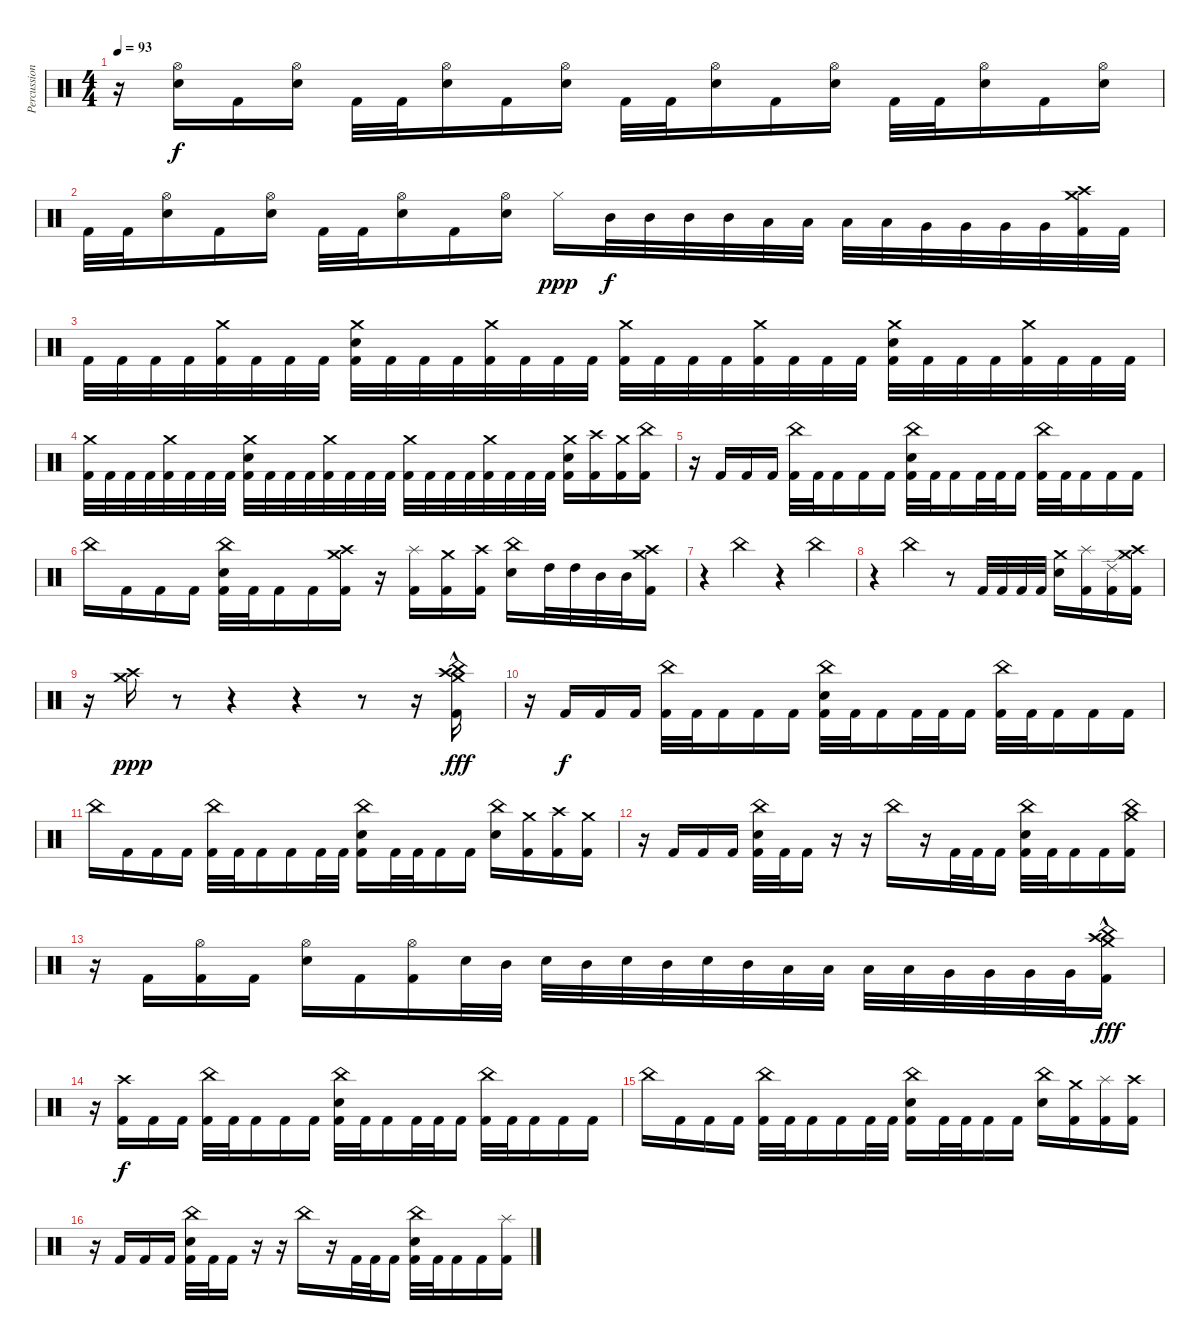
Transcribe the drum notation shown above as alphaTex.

\track ("Percussion" "Percussion") {instrument percussion}
\staff {score}
\articulation defaults
\ts (4 4)
\tempo 93
\clef neutral
\ks c
r.16{dy f} ("Hi-Hat (open)" "Electric Snare (hit)").16 "Kick (hit) 2".16 ("Hi-Hat (open)" "Electric Snare (hit)").16 "Kick (hit) 2".32 "Kick (hit) 2".32 ("Hi-Hat (open)" "Electric Snare (hit)").16 "Kick (hit) 2".16 ("Hi-Hat (open)" "Electric Snare (hit)").16 "Kick (hit) 2".32 "Kick (hit) 2".32 ("Hi-Hat (open)" "Electric Snare (hit)").16 "Kick (hit) 2".16 ("Hi-Hat (open)" "Electric Snare (hit)").16 "Kick (hit) 2".32 "Kick (hit) 2".32 ("Hi-Hat (open)" "Electric Snare (hit)").16 "Kick (hit) 2".16 ("Hi-Hat (open)" "Electric Snare (hit)").16 |
"Kick (hit) 2".32 "Kick (hit) 2".32 ("Hi-Hat (open)" "Electric Snare (hit)").16 "Kick (hit) 2".16 ("Hi-Hat (open)" "Electric Snare (hit)").16 "Kick (hit) 2".32 "Kick (hit) 2".32 ("Hi-Hat (open)" "Electric Snare (hit)").16 "Kick (hit) 2".16 ("Hi-Hat (open)" "Electric Snare (hit)").16 "Hi-Hat (closed)".16{dy ppp} "Mid Tom (hit)".32{dy f} "Mid Tom (hit)".32 "Mid Tom (hit)".32 "Mid Tom (hit)".32 "Low Tom (hit)".32 "Low Tom (hit)".32 "Low Tom (hit)".32 "Low Tom (hit)".32 "Very Low Tom (hit)".32 "Very Low Tom (hit)".32 "Very Low Tom (hit)".32 "Very Low Tom (hit)".32 ("Crash medium (hit)" "Crash high (hit)" "Kick (hit) 2").32 "Kick (hit) 2".32 |
"Kick (hit) 2".32 "Kick (hit) 2".32 "Kick (hit) 2".32 "Kick (hit) 2".32 ("Crash medium (hit)" "Kick (hit) 2").32 "Kick (hit) 2".32 "Kick (hit) 2".32 "Kick (hit) 2".32 ("Crash medium (hit)" "Electric Snare (hit)" "Kick (hit) 2").32 "Kick (hit) 2".32 "Kick (hit) 2".32 "Kick (hit) 2".32 ("Crash medium (hit)" "Kick (hit) 2").32 "Kick (hit) 2".32 "Kick (hit) 2".32 "Kick (hit) 2".32 ("Crash medium (hit)" "Kick (hit) 2").32 "Kick (hit) 2".32 "Kick (hit) 2".32 "Kick (hit) 2".32 ("Crash medium (hit)" "Kick (hit) 2").32 "Kick (hit) 2".32 "Kick (hit) 2".32 "Kick (hit) 2".32 ("Crash medium (hit)" "Electric Snare (hit)" "Kick (hit) 2").32 "Kick (hit) 2".32 "Kick (hit) 2".32 "Kick (hit) 2".32 ("Crash medium (hit)" "Kick (hit) 2").32 "Kick (hit) 2".32 "Kick (hit) 2".32 "Kick (hit) 2".32 |
("Crash medium (hit)" "Kick (hit) 2").32 "Kick (hit) 2".32 "Kick (hit) 2".32 "Kick (hit) 2".32 ("Crash medium (hit)" "Kick (hit) 2").32 "Kick (hit) 2".32 "Kick (hit) 2".32 "Kick (hit) 2".32 ("Crash medium (hit)" "Electric Snare (hit)" "Kick (hit) 2").32 "Kick (hit) 2".32 "Kick (hit) 2".32 "Kick (hit) 2".32 ("Crash medium (hit)" "Kick (hit) 2").32 "Kick (hit) 2".32 "Kick (hit) 2".32 "Kick (hit) 2".32 ("Crash medium (hit)" "Kick (hit) 2").32 "Kick (hit) 2".32 "Kick (hit) 2".32 "Kick (hit) 2".32 ("Crash medium (hit)" "Kick (hit) 2").32 "Kick (hit) 2".32 "Kick (hit) 2".32 "Kick (hit) 2".32 ("Crash medium (hit)" "Electric Snare (hit)" "Kick (hit) 2").16 ("Crash high (hit)" "Kick (hit) 2").16 ("Crash medium (hit)" "Kick (hit) 2").16 ("China (hit)" "Kick (hit) 2").16 |
r.16 "Kick (hit) 2".16 "Kick (hit) 2".16 "Kick (hit) 2".16 ("China (hit)" "Kick (hit) 2").32 "Kick (hit) 2".32 "Kick (hit) 2".16 "Kick (hit) 2".16 "Kick (hit) 2".16 ("China (hit)" "Electric Snare (hit)" "Kick (hit) 2").32 "Kick (hit) 2".32 "Kick (hit) 2".16 "Kick (hit) 2".32 "Kick (hit) 2".32 "Kick (hit) 2".16 ("China (hit)" "Kick (hit) 2").32 "Kick (hit) 2".32 "Kick (hit) 2".16 "Kick (hit) 2".16 "Kick (hit) 2".16 |
"China (hit)".16 "Kick (hit) 2".16 "Kick (hit) 2".16 "Kick (hit) 2".16 ("China (hit)" "Electric Snare (hit)" "Kick (hit) 2").32 "Kick (hit) 2".32 "Kick (hit) 2".16 "Kick (hit) 2".16 ("Crash medium (hit)" "Crash high (hit)" "Kick (hit) 2").16 r.16 ("Splash (hit)" "Kick (hit) 2").16 ("Crash medium (hit)" "Kick (hit) 2").16 ("Crash high (hit)" "Kick (hit) 2").16 ("China (hit)" "Electric Snare (hit)").16 "High Tom (hit)".32 "High Tom (hit)".32 "Mid Tom (hit)".32 "Mid Tom (hit)".32 ("Crash medium (hit)" "Crash high (hit)" "Kick (hit) 2").16 |
r.4 "China (hit)".4 r.4 "China (hit)".4 |
r.4 "China (hit)".4 r.8 "Kick (hit) 2".32 "Kick (hit) 2".32 "Kick (hit) 2".32 "Kick (hit) 2".32 ("Crash medium (hit)" "Electric Snare (hit)").16 ("Splash (hit)" "Kick (hit) 2").16 ("Ride (edge) 2" "Kick (hit) 2").16 ("Crash medium (hit)" "Crash high (hit)" "Kick (hit) 2").16 |
r.16 ("Crash medium (hit)" "Crash high (hit)").16{dy ppp} r.8 r.4 r.4 r.8 r.16 ("Crash medium (hit)"{hac} "Crash high (hit)"{hac} "China (hit)"{hac} "Kick (hit) 2"{hac}).16{dy fff} |
r.16 "Kick (hit) 2".16{dy f} "Kick (hit) 2".16 "Kick (hit) 2".16 ("China (hit)" "Kick (hit) 2").32 "Kick (hit) 2".32 "Kick (hit) 2".16 "Kick (hit) 2".16 "Kick (hit) 2".16 ("China (hit)" "Electric Snare (hit)" "Kick (hit) 2").32 "Kick (hit) 2".32 "Kick (hit) 2".16 "Kick (hit) 2".32 "Kick (hit) 2".32 "Kick (hit) 2".16 ("China (hit)" "Kick (hit) 2").32 "Kick (hit) 2".32 "Kick (hit) 2".16 "Kick (hit) 2".16 "Kick (hit) 2".16 |
"China (hit)".16 "Kick (hit) 2".16 "Kick (hit) 2".16 "Kick (hit) 2".16 ("China (hit)" "Kick (hit) 2").32 "Kick (hit) 2".32 "Kick (hit) 2".16 "Kick (hit) 2".16 "Kick (hit) 2".32 "Kick (hit) 2".32 ("China (hit)" "Electric Snare (hit)" "Kick (hit) 2").16 "Kick (hit) 2".32 "Kick (hit) 2".32 "Kick (hit) 2".16 "Kick (hit) 2".16 ("China (hit)" "Electric Snare (hit)").16 ("Crash medium (hit)" "Kick (hit) 2").16 ("Crash high (hit)" "Kick (hit) 2").16 ("Crash medium (hit)" "Kick (hit) 2").16 |
r.16 "Kick (hit) 2".16 "Kick (hit) 2".16 "Kick (hit) 2".16 ("China (hit)" "Electric Snare (hit)" "Kick (hit) 2").32 "Kick (hit) 2".32 "Kick (hit) 2".16 r.16 r.16 "China (hit)".16 r.16 "Kick (hit) 2".32 "Kick (hit) 2".32 "Kick (hit) 2".16 ("China (hit)" "Electric Snare (hit)" "Kick (hit) 2").32 "Kick (hit) 2".32 "Kick (hit) 2".16 "Kick (hit) 2".16 ("China (hit)" "Crash medium (hit)" "Kick (hit) 2").16 |
r.16 "Kick (hit) 2".16 ("Hi-Hat (open)" "Kick (hit) 2").16 "Kick (hit) 2".16 ("Hi-Hat (open)" "Electric Snare (hit)").16 "Kick (hit) 2".16 ("Hi-Hat (open)" "Kick (hit) 2").16 "Electric Snare (hit)".32 "Mid Tom (hit)".32 "Electric Snare (hit)".32 "Mid Tom (hit)".32 "Electric Snare (hit)".32 "Mid Tom (hit)".32 "Electric Snare (hit)".32 "Mid Tom (hit)".32 "Low Tom (hit)".32 "Low Tom (hit)".32 "Low Tom (hit)".32 "Low Tom (hit)".32 "Very Low Tom (hit)".32 "Very Low Tom (hit)".32 "Very Low Tom (hit)".32 "Very Low Tom (hit)".32 ("Crash medium (hit)"{hac} "Crash high (hit)"{hac} "China (hit)"{hac} "Kick (hit) 2"{hac}).16{dy fff} |
r.16 ("Crash high (hit)" "Kick (hit) 2").16{dy f} "Kick (hit) 2".16 "Kick (hit) 2".16 ("China (hit)" "Kick (hit) 2").32 "Kick (hit) 2".32 "Kick (hit) 2".16 "Kick (hit) 2".16 "Kick (hit) 2".16 ("China (hit)" "Electric Snare (hit)" "Kick (hit) 2").32 "Kick (hit) 2".32 "Kick (hit) 2".16 "Kick (hit) 2".32 "Kick (hit) 2".32 "Kick (hit) 2".16 ("China (hit)" "Kick (hit) 2").32 "Kick (hit) 2".32 "Kick (hit) 2".16 "Kick (hit) 2".16 "Kick (hit) 2".16 |
"China (hit)".16 "Kick (hit) 2".16 "Kick (hit) 2".16 "Kick (hit) 2".16 ("China (hit)" "Kick (hit) 2").32 "Kick (hit) 2".32 "Kick (hit) 2".16 "Kick (hit) 2".16 "Kick (hit) 2".32 "Kick (hit) 2".32 ("China (hit)" "Electric Snare (hit)" "Kick (hit) 2").16 "Kick (hit) 2".32 "Kick (hit) 2".32 "Kick (hit) 2".16 "Kick (hit) 2".16 ("China (hit)" "Electric Snare (hit)").16 ("Crash medium (hit)" "Kick (hit) 2").16 ("Splash (hit)" "Kick (hit) 2").16 ("Crash high (hit)" "Kick (hit) 2").16 |
r.16 "Kick (hit) 2".16 "Kick (hit) 2".16 "Kick (hit) 2".16 ("China (hit)" "Electric Snare (hit)" "Kick (hit) 2").32 "Kick (hit) 2".32 "Kick (hit) 2".16 r.16 r.16 "China (hit)".16 r.16 "Kick (hit) 2".32 "Kick (hit) 2".32 "Kick (hit) 2".16 ("China (hit)" "Electric Snare (hit)" "Kick (hit) 2").32 "Kick (hit) 2".32 "Kick (hit) 2".16 "Kick (hit) 2".16 ("Splash (hit)" "Kick (hit) 2").16
